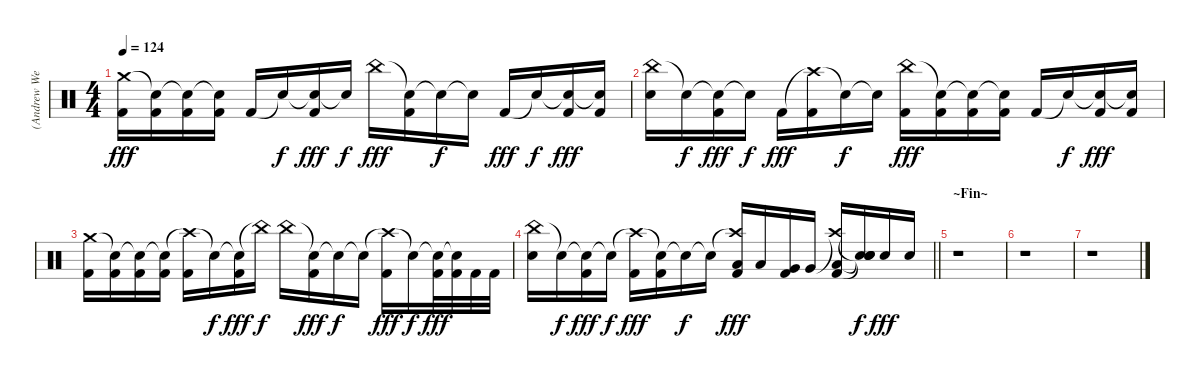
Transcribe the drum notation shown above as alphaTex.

\track ("(Andrew Wetzel) Drums" "(Andrew We") {instrument percussion}
\staff {score}
\articulation defaults
\ts (4 4)
\tempo 124
\clef neutral
\ks c
("Crash medium (hit)" "Kick (hit) 2").16{dy fff} ("Snare (hit)"{t} "Kick (hit) 2").16 ("Snare (hit)"{t} "Kick (hit) 2").16 ("Snare (hit)"{t} "Kick (hit) 2").16 "Kick (hit) 2".16 "Snare (hit)"{t}.16{dy f} ("Snare (hit)"{t} "Kick (hit) 2").16{dy fff} "Snare (hit)"{t}.16{dy f} "China (hit)".16{dy fff} ("Snare (hit)"{t} "Kick (hit) 2").16 "Snare (hit)"{t}.16{dy f} "Snare (hit)"{t}.16 "Kick (hit) 2".16{dy fff} "Snare (hit)"{t}.16{dy f} ("Snare (hit)"{t} "Kick (hit) 2").16{dy fff} ("Snare (hit)"{t} "Kick (hit) 2").16 |
("China (hit)" "Electric Snare (hit)").16 "Snare (hit)"{t}.16{dy f} ("Snare (hit)"{t} "Kick (hit) 2").16{dy fff} "Snare (hit)"{t}.16{dy f} "Kick (hit) 2".16{dy fff} ("Crash high (hit)"{t} "Kick (hit) 2").16 "Snare (hit)"{t}.16{dy f} "Snare (hit)"{t}.16 ("China (hit)" "Kick (hit) 2").16{dy fff} ("Snare (hit)"{t} "Kick (hit) 2").16 ("Snare (hit)"{t} "Kick (hit) 2").16 ("Snare (hit)"{t} "Kick (hit) 2").16 "Kick (hit) 2".16 "Snare (hit)"{t}.16{dy f} ("Snare (hit)"{t} "Kick (hit) 2").16{dy fff} ("Snare (hit)"{t} "Kick (hit) 2").16 |
("Crash medium (hit)" "Kick (hit) 2").16 ("Snare (hit)"{t} "Kick (hit) 2").16 ("Snare (hit)"{t} "Kick (hit) 2").16 ("Snare (hit)"{t} "Kick (hit) 2").16 ("Crash high (hit)"{t} "Kick (hit) 2").16 "Snare (hit)"{t}.16{dy f} ("Snare (hit)"{t} "Kick (hit) 2").16{dy fff} "China (hit)"{t}.16{dy f} "China (hit)".16 ("Snare (hit)"{t} "Kick (hit) 2").16{dy fff} "Snare (hit)"{t}.16{dy f} "Snare (hit)"{t}.16 ("Crash high (hit)"{t} "Kick (hit) 2").16{dy fff} "Snare (hit)"{t}.16{dy f} ("Snare (hit)"{t} "Kick (hit) 2").32{dy fff} ("Snare (hit)"{t} "Kick (hit) 2").32 "Kick (hit) 2".32 "Kick (hit) 2".32 |
\barLineRight lightlight
("China (hit)" "Electric Snare (hit)").16 "Snare (hit)"{t}.16{dy f} ("Snare (hit)"{t} "Kick (hit) 2").16{dy fff} "Snare (hit)"{t}.16{dy f} ("Crash high (hit)"{t} "Kick (hit) 2").16{dy fff} ("Snare (hit)"{t} "Kick (hit) 2").16 "Snare (hit)"{t}.16{dy f} "Snare (hit)"{t}.16 ("Crash high (hit)"{t} "Low Tom (hit)" "Kick (hit) 2").16{dy fff} "Low Tom (hit)".16 ("Very Low Tom (hit)" "Kick (hit) 2").16 "Very Low Tom (hit)".16 ("Crash high (hit)"{t} "Low Floor Tom (hit)" "Kick (hit) 2").16 ("Snare (hit)"{t} "Snare (hit)"{t} "Snare (hit)"{t} "Snare (hit)").16{dy f} "Electric Snare (hit)".16{dy fff} "Electric Snare (hit)".16 |
\section ("" "~Fin~")
r.1 |
r.1 |
r.1
